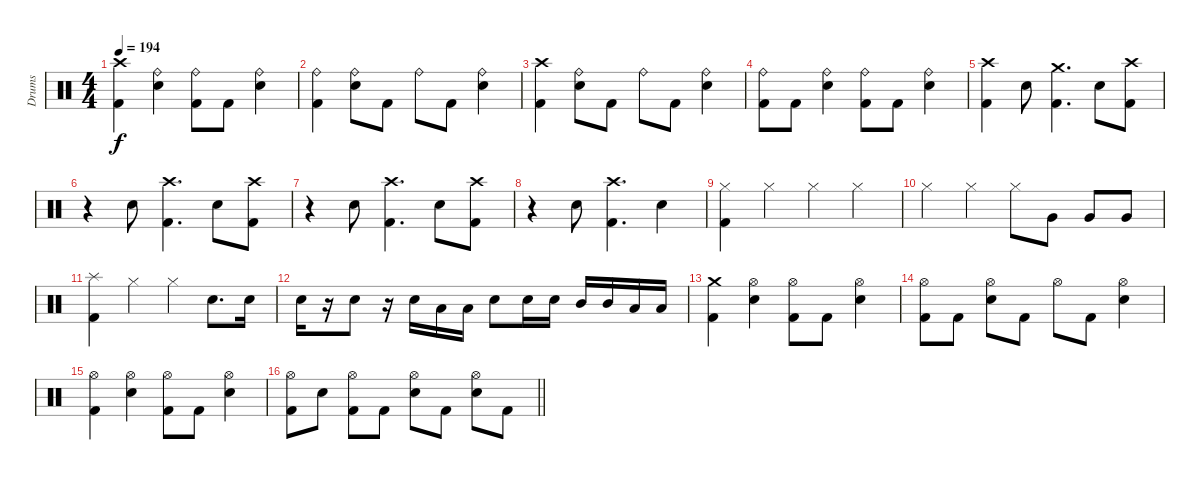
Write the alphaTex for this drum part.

\track ("Drums" "Drums") {instrument percussion}
\staff {score}
\articulation defaults
\ts (4 4)
\tempo 194
\clef neutral
\ks c
("Crash high (hit)" "Kick (hit) 2").4{dy f} ("Ride (bell)" "Snare (hit) 2").4 ("Ride (bell)" "Kick (hit) 2").8 "Kick (hit) 2".8 ("Ride (bell)" "Snare (hit) 2").4 |
("Ride (bell)" "Kick (hit) 2").4 ("Ride (bell)" "Snare (hit) 2").8 "Kick (hit) 2".8 "Ride (bell)".8 "Kick (hit) 2".8 ("Ride (bell)" "Snare (hit) 2").4 |
("Crash high (hit)" "Kick (hit) 2").4 ("Ride (bell)" "Snare (hit) 2").8 "Kick (hit) 2".8 "Ride (bell)".8 "Kick (hit) 2".8 ("Ride (bell)" "Snare (hit) 2").4 |
("Ride (bell)" "Kick (hit) 2").8 "Kick (hit) 2".8 ("Ride (bell)" "Snare (hit) 2").4 ("Ride (bell)" "Kick (hit) 2").8 "Kick (hit) 2".8 ("Ride (bell)" "Snare (hit) 2").4 |
("Crash high (hit)" "Kick (hit) 2").4 "Snare (hit) 2".8 ("Crash medium (hit)" "Kick (hit) 2").4{d} "Snare (hit) 2".8 ("Crash high (hit)" "Kick (hit) 2").8 |
r.4 "Snare (hit) 2".8 ("Crash high (hit)" "Kick (hit) 2").4{d} "Snare (hit) 2".8 ("Crash high (hit)" "Kick (hit) 2").8 |
r.4 "Snare (hit) 2".8 ("Crash high (hit)" "Kick (hit) 2").4{d} "Snare (hit) 2".8 ("Crash high (hit)" "Kick (hit) 2").8 |
r.4 "Snare (hit) 2".8 ("Crash high (hit)" "Kick (hit) 2").4{d} "Snare (hit) 2".4 |
("Hi-Hat (closed)" "Kick (hit) 2").4 "Hi-Hat (closed)".4 "Hi-Hat (closed)".4 "Hi-Hat (closed)".4 |
"Hi-Hat (closed)".4 "Hi-Hat (closed)".4 "Hi-Hat (closed)".8 "Very Low Tom (hit)".8 "Very Low Tom (hit)".8 "Very Low Tom (hit)".8 |
("Splash (hit)" "Kick (hit) 2").4 "Hi-Hat (closed)".4 "Hi-Hat (closed)".4 "Snare (hit) 2".8{d} "Snare (hit) 2".16 |
"Snare (hit) 2".16 r.16 "Snare (hit) 2".8 r.16 "Snare (hit) 2".16 "Low Tom (hit)".16 "Low Tom (hit)".16 "Snare (hit) 2".8 "Snare (hit) 2".16 "Snare (hit) 2".16 "Mid Tom (hit)".16 "Mid Tom (hit)".16 "Low Tom (hit)".16 "Low Tom (hit)".16 |
("Crash medium (hit)" "Kick (hit) 2").4 ("Hi-Hat (open)" "Snare (hit) 2").4 ("Hi-Hat (open)" "Kick (hit) 2").8 "Kick (hit) 2".8 ("Hi-Hat (open)" "Snare (hit) 2").4 |
("Hi-Hat (open)" "Kick (hit) 2").8 "Kick (hit) 2".8 ("Hi-Hat (open)" "Snare (hit) 2").8 "Kick (hit) 2".8 "Hi-Hat (open)".8 "Kick (hit) 2".8 ("Hi-Hat (open)" "Snare (hit) 2").4 |
("Hi-Hat (open)" "Kick (hit) 2").4 ("Hi-Hat (open)" "Snare (hit) 2").4 ("Hi-Hat (open)" "Kick (hit) 2").8 "Kick (hit) 2".8 ("Hi-Hat (open)" "Snare (hit) 2").4 |
\barLineRight lightlight
("Hi-Hat (open)" "Kick (hit) 2").8 "Snare (hit) 2".8 ("Hi-Hat (open)" "Kick (hit) 2").8 "Kick (hit) 2".8 ("Hi-Hat (open)" "Snare (hit) 2").8 "Kick (hit) 2".8 ("Hi-Hat (open)" "Snare (hit) 2").8 "Kick (hit) 2".8
